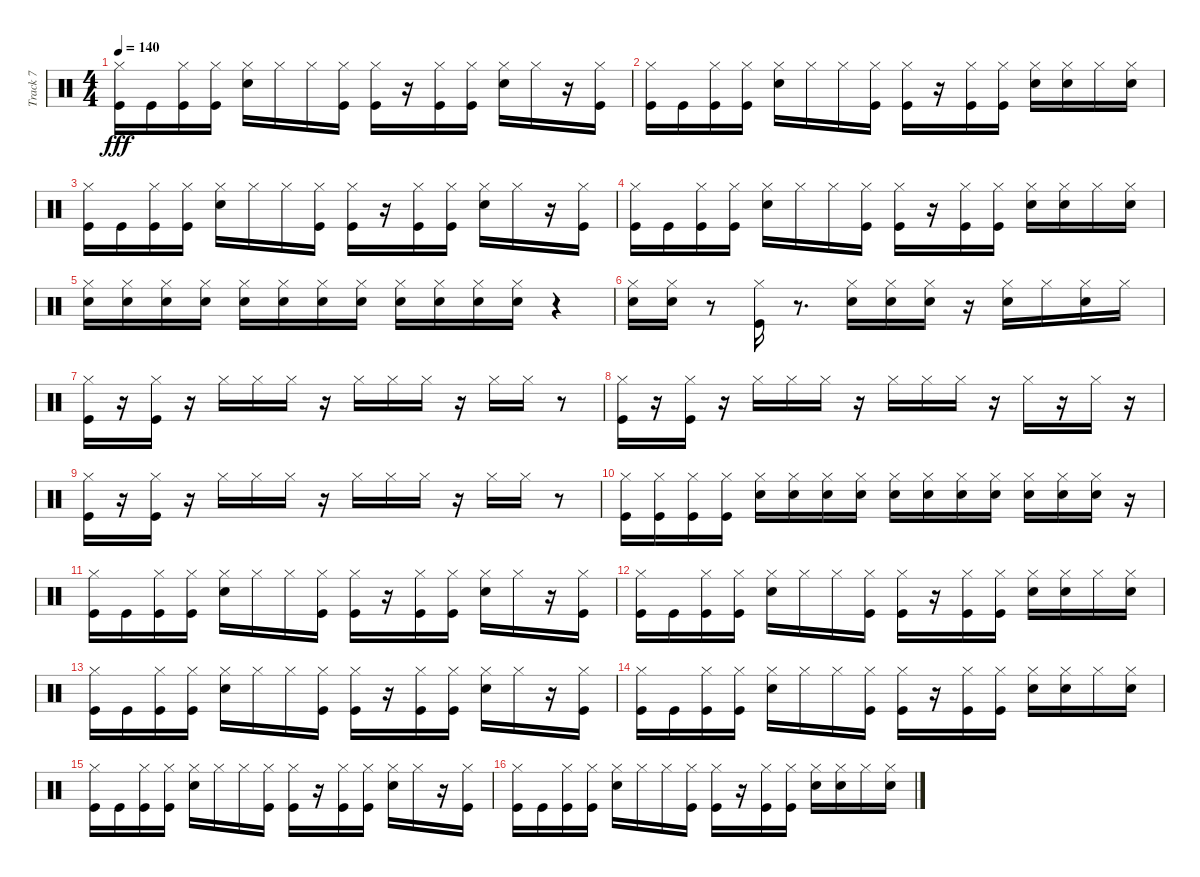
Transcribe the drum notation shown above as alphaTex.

\track ("Track 7" "Track 7") {instrument percussion}
\staff {score}
\articulation defaults
\ts (4 4)
\tempo 140
\clef neutral
\ks c
("Kick (hit)" "Hi-Hat (closed)").16{dy fff} "Kick (hit)".16 ("Kick (hit)" "Hi-Hat (closed)").16 ("Kick (hit)" "Hi-Hat (closed)").16 ("Snare (hit) 2" "Hi-Hat (closed)").16 "Hi-Hat (closed)".16 "Hi-Hat (closed)".16 ("Kick (hit)" "Hi-Hat (closed)").16 ("Kick (hit)" "Hi-Hat (closed)").16 r.16 ("Kick (hit)" "Hi-Hat (closed)").16 ("Kick (hit)" "Hi-Hat (closed)").16 ("Snare (hit) 2" "Hi-Hat (closed)").16 "Hi-Hat (closed)".16 r.16 ("Kick (hit)" "Hi-Hat (closed)").16 |
("Kick (hit)" "Hi-Hat (closed)").16 "Kick (hit)".16 ("Kick (hit)" "Hi-Hat (closed)").16 ("Kick (hit)" "Hi-Hat (closed)").16 ("Snare (hit) 2" "Hi-Hat (closed)").16 "Hi-Hat (closed)".16 "Hi-Hat (closed)".16 ("Kick (hit)" "Hi-Hat (closed)").16 ("Kick (hit)" "Hi-Hat (closed)").16 r.16 ("Kick (hit)" "Hi-Hat (closed)").16 ("Kick (hit)" "Hi-Hat (closed)").16 ("Snare (hit) 2" "Hi-Hat (closed)").16 ("Snare (hit) 2" "Hi-Hat (closed)").16 "Hi-Hat (closed)".16 ("Snare (hit) 2" "Hi-Hat (closed)").16 |
("Kick (hit)" "Hi-Hat (closed)").16 "Kick (hit)".16 ("Kick (hit)" "Hi-Hat (closed)").16 ("Kick (hit)" "Hi-Hat (closed)").16 ("Snare (hit) 2" "Hi-Hat (closed)").16 "Hi-Hat (closed)".16 "Hi-Hat (closed)".16 ("Kick (hit)" "Hi-Hat (closed)").16 ("Kick (hit)" "Hi-Hat (closed)").16 r.16 ("Kick (hit)" "Hi-Hat (closed)").16 ("Kick (hit)" "Hi-Hat (closed)").16 ("Snare (hit) 2" "Hi-Hat (closed)").16 "Hi-Hat (closed)".16 r.16 ("Kick (hit)" "Hi-Hat (closed)").16 |
("Kick (hit)" "Hi-Hat (closed)").16 "Kick (hit)".16 ("Kick (hit)" "Hi-Hat (closed)").16 ("Kick (hit)" "Hi-Hat (closed)").16 ("Snare (hit) 2" "Hi-Hat (closed)").16 "Hi-Hat (closed)".16 "Hi-Hat (closed)".16 ("Kick (hit)" "Hi-Hat (closed)").16 ("Kick (hit)" "Hi-Hat (closed)").16 r.16 ("Kick (hit)" "Hi-Hat (closed)").16 ("Kick (hit)" "Hi-Hat (closed)").16 ("Snare (hit) 2" "Hi-Hat (closed)").16 ("Snare (hit) 2" "Hi-Hat (closed)").16 "Hi-Hat (closed)".16 ("Snare (hit) 2" "Hi-Hat (closed)").16 |
("Snare (hit) 2" "Hi-Hat (closed)").16 ("Snare (hit) 2" "Hi-Hat (closed)").16 ("Snare (hit) 2" "Hi-Hat (closed)").16 ("Snare (hit) 2" "Hi-Hat (closed)").16 ("Snare (hit) 2" "Hi-Hat (closed)").16 ("Snare (hit) 2" "Hi-Hat (closed)").16 ("Snare (hit) 2" "Hi-Hat (closed)").16 ("Snare (hit) 2" "Hi-Hat (closed)").16 ("Snare (hit) 2" "Hi-Hat (closed)").16 ("Snare (hit) 2" "Hi-Hat (closed)").16 ("Snare (hit) 2" "Hi-Hat (closed)").16 ("Snare (hit) 2" "Hi-Hat (closed)").16 r.4 |
("Snare (hit) 2" "Hi-Hat (closed)").16 ("Snare (hit) 2" "Hi-Hat (closed)").16 r.8 ("Kick (hit)" "Hi-Hat (closed)").16 r.8{d} ("Snare (hit) 2" "Hi-Hat (closed)").16 ("Snare (hit) 2" "Hi-Hat (closed)").16 ("Snare (hit) 2" "Hi-Hat (closed)").16 r.16 ("Snare (hit) 2" "Hi-Hat (closed)").16 "Hi-Hat (closed)".16 ("Snare (hit) 2" "Hi-Hat (closed)").16 "Hi-Hat (closed)".16 |
("Kick (hit)" "Hi-Hat (closed)").16 r.16 ("Kick (hit)" "Hi-Hat (closed)").16 r.16 "Hi-Hat (closed)".16 "Hi-Hat (closed)".16 "Hi-Hat (closed)".16 r.16 "Hi-Hat (closed)".16 "Hi-Hat (closed)".16 "Hi-Hat (closed)".16 r.16 "Hi-Hat (closed)".16 "Hi-Hat (closed)".16 r.8 |
("Kick (hit)" "Hi-Hat (closed)").16 r.16 ("Kick (hit)" "Hi-Hat (closed)").16 r.16 "Hi-Hat (closed)".16 "Hi-Hat (closed)".16 "Hi-Hat (closed)".16 r.16 "Hi-Hat (closed)".16 "Hi-Hat (closed)".16 "Hi-Hat (closed)".16 r.16 "Hi-Hat (closed)".16 r.16 "Hi-Hat (closed)".16 r.16 |
("Kick (hit)" "Hi-Hat (closed)").16 r.16 ("Kick (hit)" "Hi-Hat (closed)").16 r.16 "Hi-Hat (closed)".16 "Hi-Hat (closed)".16 "Hi-Hat (closed)".16 r.16 "Hi-Hat (closed)".16 "Hi-Hat (closed)".16 "Hi-Hat (closed)".16 r.16 "Hi-Hat (closed)".16 "Hi-Hat (closed)".16 r.8 |
("Kick (hit)" "Hi-Hat (closed)").16 ("Kick (hit)" "Hi-Hat (closed)").16 ("Kick (hit)" "Hi-Hat (closed)").16 ("Kick (hit)" "Hi-Hat (closed)").16 ("Snare (hit) 2" "Hi-Hat (closed)").16 ("Snare (hit) 2" "Hi-Hat (closed)").16 ("Snare (hit) 2" "Hi-Hat (closed)").16 ("Snare (hit) 2" "Hi-Hat (closed)").16 ("Snare (hit) 2" "Hi-Hat (closed)").16 ("Snare (hit) 2" "Hi-Hat (closed)").16 ("Snare (hit) 2" "Hi-Hat (closed)").16 ("Snare (hit) 2" "Hi-Hat (closed)").16 ("Snare (hit) 2" "Hi-Hat (closed)").16 ("Snare (hit) 2" "Hi-Hat (closed)").16 ("Snare (hit) 2" "Hi-Hat (closed)").16 r.16 |
("Kick (hit)" "Hi-Hat (closed)").16 "Kick (hit)".16 ("Kick (hit)" "Hi-Hat (closed)").16 ("Kick (hit)" "Hi-Hat (closed)").16 ("Snare (hit) 2" "Hi-Hat (closed)").16 "Hi-Hat (closed)".16 "Hi-Hat (closed)".16 ("Kick (hit)" "Hi-Hat (closed)").16 ("Kick (hit)" "Hi-Hat (closed)").16 r.16 ("Kick (hit)" "Hi-Hat (closed)").16 ("Kick (hit)" "Hi-Hat (closed)").16 ("Snare (hit) 2" "Hi-Hat (closed)").16 "Hi-Hat (closed)".16 r.16 ("Kick (hit)" "Hi-Hat (closed)").16 |
("Kick (hit)" "Hi-Hat (closed)").16 "Kick (hit)".16 ("Kick (hit)" "Hi-Hat (closed)").16 ("Kick (hit)" "Hi-Hat (closed)").16 ("Snare (hit) 2" "Hi-Hat (closed)").16 "Hi-Hat (closed)".16 "Hi-Hat (closed)".16 ("Kick (hit)" "Hi-Hat (closed)").16 ("Kick (hit)" "Hi-Hat (closed)").16 r.16 ("Kick (hit)" "Hi-Hat (closed)").16 ("Kick (hit)" "Hi-Hat (closed)").16 ("Snare (hit) 2" "Hi-Hat (closed)").16 ("Snare (hit) 2" "Hi-Hat (closed)").16 "Hi-Hat (closed)".16 ("Snare (hit) 2" "Hi-Hat (closed)").16 |
("Kick (hit)" "Hi-Hat (closed)").16 "Kick (hit)".16 ("Kick (hit)" "Hi-Hat (closed)").16 ("Kick (hit)" "Hi-Hat (closed)").16 ("Snare (hit) 2" "Hi-Hat (closed)").16 "Hi-Hat (closed)".16 "Hi-Hat (closed)".16 ("Kick (hit)" "Hi-Hat (closed)").16 ("Kick (hit)" "Hi-Hat (closed)").16 r.16 ("Kick (hit)" "Hi-Hat (closed)").16 ("Kick (hit)" "Hi-Hat (closed)").16 ("Snare (hit) 2" "Hi-Hat (closed)").16 "Hi-Hat (closed)".16 r.16 ("Kick (hit)" "Hi-Hat (closed)").16 |
("Kick (hit)" "Hi-Hat (closed)").16 "Kick (hit)".16 ("Kick (hit)" "Hi-Hat (closed)").16 ("Kick (hit)" "Hi-Hat (closed)").16 ("Snare (hit) 2" "Hi-Hat (closed)").16 "Hi-Hat (closed)".16 "Hi-Hat (closed)".16 ("Kick (hit)" "Hi-Hat (closed)").16 ("Kick (hit)" "Hi-Hat (closed)").16 r.16 ("Kick (hit)" "Hi-Hat (closed)").16 ("Kick (hit)" "Hi-Hat (closed)").16 ("Snare (hit) 2" "Hi-Hat (closed)").16 ("Snare (hit) 2" "Hi-Hat (closed)").16 "Hi-Hat (closed)".16 ("Snare (hit) 2" "Hi-Hat (closed)").16 |
("Kick (hit)" "Hi-Hat (closed)").16 "Kick (hit)".16 ("Kick (hit)" "Hi-Hat (closed)").16 ("Kick (hit)" "Hi-Hat (closed)").16 ("Snare (hit) 2" "Hi-Hat (closed)").16 "Hi-Hat (closed)".16 "Hi-Hat (closed)".16 ("Kick (hit)" "Hi-Hat (closed)").16 ("Kick (hit)" "Hi-Hat (closed)").16 r.16 ("Kick (hit)" "Hi-Hat (closed)").16 ("Kick (hit)" "Hi-Hat (closed)").16 ("Snare (hit) 2" "Hi-Hat (closed)").16 "Hi-Hat (closed)".16 r.16 ("Kick (hit)" "Hi-Hat (closed)").16 |
("Kick (hit)" "Hi-Hat (closed)").16 "Kick (hit)".16 ("Kick (hit)" "Hi-Hat (closed)").16 ("Kick (hit)" "Hi-Hat (closed)").16 ("Snare (hit) 2" "Hi-Hat (closed)").16 "Hi-Hat (closed)".16 "Hi-Hat (closed)".16 ("Kick (hit)" "Hi-Hat (closed)").16 ("Kick (hit)" "Hi-Hat (closed)").16 r.16 ("Kick (hit)" "Hi-Hat (closed)").16 ("Kick (hit)" "Hi-Hat (closed)").16 ("Snare (hit) 2" "Hi-Hat (closed)").16 ("Snare (hit) 2" "Hi-Hat (closed)").16 "Hi-Hat (closed)".16 ("Snare (hit) 2" "Hi-Hat (closed)").16
